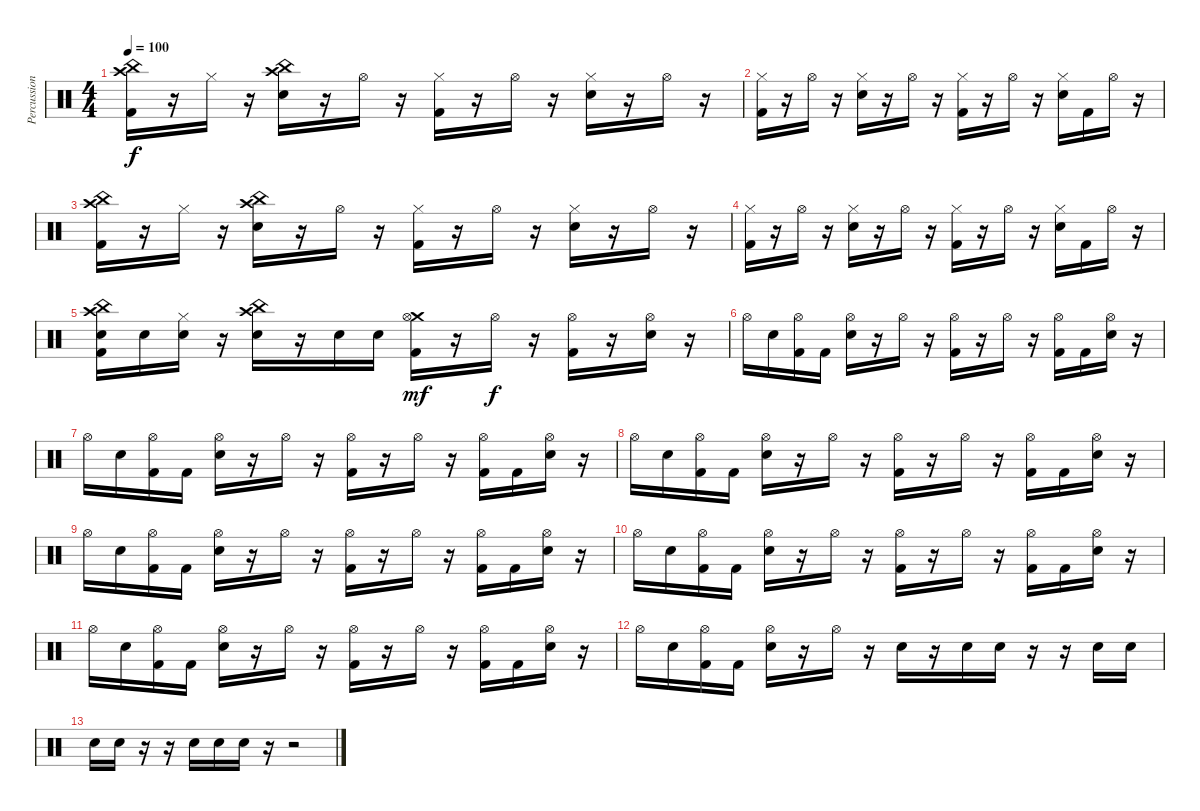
\track ("Percussion" "Percussion") {instrument percussion}
\staff {score}
\articulation defaults
\ts (4 4)
\tempo 100
\clef neutral
\ks c
("China (hit)" "Crash high (hit)" "Kick (hit) 2").16{dy f} r.16 "Hi-Hat (closed)".16 r.16 ("China (hit)" "Crash high (hit)" "Snare (hit) 2").16 r.16 "Hi-Hat (open)".16 r.16 ("Hi-Hat (closed)" "Kick (hit) 2").16 r.16 "Hi-Hat (open)".16 r.16 ("Hi-Hat (closed)" "Snare (hit) 2").16 r.16 "Hi-Hat (open)".16 r.16 |
("Hi-Hat (closed)" "Kick (hit) 2").16 r.16 "Hi-Hat (open)".16 r.16 ("Hi-Hat (closed)" "Snare (hit) 2").16 r.16 "Hi-Hat (open)".16 r.16 ("Hi-Hat (closed)" "Kick (hit) 2").16 r.16 "Hi-Hat (open)".16 r.16 ("Hi-Hat (closed)" "Snare (hit) 2").16 "Kick (hit) 2".16 "Hi-Hat (open)".16 r.16 |
("China (hit)" "Crash high (hit)" "Kick (hit) 2").16 r.16 "Hi-Hat (closed)".16 r.16 ("China (hit)" "Crash high (hit)" "Snare (hit) 2").16 r.16 "Hi-Hat (open)".16 r.16 ("Hi-Hat (closed)" "Kick (hit) 2").16 r.16 "Hi-Hat (open)".16 r.16 ("Hi-Hat (closed)" "Snare (hit) 2").16 r.16 "Hi-Hat (open)".16 r.16 |
("Hi-Hat (closed)" "Kick (hit) 2").16 r.16 "Hi-Hat (open)".16 r.16 ("Hi-Hat (closed)" "Snare (hit) 2").16 r.16 "Hi-Hat (open)".16 r.16 ("Hi-Hat (closed)" "Kick (hit) 2").16 r.16 "Hi-Hat (open)".16 r.16 ("Hi-Hat (closed)" "Snare (hit) 2").16 "Kick (hit) 2".16 "Hi-Hat (open)".16 r.16 |
("China (hit)" "Crash high (hit)" "Snare (hit) 2" "Kick (hit) 2").16 "Snare (hit) 2".16 ("Hi-Hat (closed)" "Snare (hit) 2").16 r.16 ("China (hit)" "Crash high (hit)" "Snare (hit) 2").16 r.16 "Snare (hit) 2".16 "Snare (hit) 2".16 ("Crash medium (hit)" "Hi-Hat (open)" "Kick (hit) 2").16{dy mf} r.16 "Hi-Hat (open)".16{dy f} r.16 ("Hi-Hat (open)" "Kick (hit) 2").16 r.16 ("Hi-Hat (open)" "Snare (hit) 2").16 r.16 |
"Hi-Hat (open)".16 "Snare (hit) 2".16 ("Hi-Hat (open)" "Kick (hit) 2").16 "Kick (hit) 2".16 ("Hi-Hat (open)" "Snare (hit) 2").16 r.16 "Hi-Hat (open)".16 r.16 ("Hi-Hat (open)" "Kick (hit) 2").16 r.16 "Hi-Hat (open)".16 r.16 ("Hi-Hat (open)" "Kick (hit) 2").16 "Kick (hit) 2".16 ("Hi-Hat (open)" "Snare (hit) 2").16 r.16 |
"Hi-Hat (open)".16 "Snare (hit) 2".16 ("Hi-Hat (open)" "Kick (hit) 2").16 "Kick (hit) 2".16 ("Hi-Hat (open)" "Snare (hit) 2").16 r.16 "Hi-Hat (open)".16 r.16 ("Hi-Hat (open)" "Kick (hit) 2").16 r.16 "Hi-Hat (open)".16 r.16 ("Hi-Hat (open)" "Kick (hit) 2").16 "Kick (hit) 2".16 ("Hi-Hat (open)" "Snare (hit) 2").16 r.16 |
"Hi-Hat (open)".16 "Snare (hit) 2".16 ("Hi-Hat (open)" "Kick (hit) 2").16 "Kick (hit) 2".16 ("Hi-Hat (open)" "Snare (hit) 2").16 r.16 "Hi-Hat (open)".16 r.16 ("Hi-Hat (open)" "Kick (hit) 2").16 r.16 "Hi-Hat (open)".16 r.16 ("Hi-Hat (open)" "Kick (hit) 2").16 "Kick (hit) 2".16 ("Hi-Hat (open)" "Snare (hit) 2").16 r.16 |
"Hi-Hat (open)".16 "Snare (hit) 2".16 ("Hi-Hat (open)" "Kick (hit) 2").16 "Kick (hit) 2".16 ("Hi-Hat (open)" "Snare (hit) 2").16 r.16 "Hi-Hat (open)".16 r.16 ("Hi-Hat (open)" "Kick (hit) 2").16 r.16 "Hi-Hat (open)".16 r.16 ("Hi-Hat (open)" "Kick (hit) 2").16 "Kick (hit) 2".16 ("Hi-Hat (open)" "Snare (hit) 2").16 r.16 |
"Hi-Hat (open)".16 "Snare (hit) 2".16 ("Hi-Hat (open)" "Kick (hit) 2").16 "Kick (hit) 2".16 ("Hi-Hat (open)" "Snare (hit) 2").16 r.16 "Hi-Hat (open)".16 r.16 ("Hi-Hat (open)" "Kick (hit) 2").16 r.16 "Hi-Hat (open)".16 r.16 ("Hi-Hat (open)" "Kick (hit) 2").16 "Kick (hit) 2".16 ("Hi-Hat (open)" "Snare (hit) 2").16 r.16 |
"Hi-Hat (open)".16 "Snare (hit) 2".16 ("Hi-Hat (open)" "Kick (hit) 2").16 "Kick (hit) 2".16 ("Hi-Hat (open)" "Snare (hit) 2").16 r.16 "Hi-Hat (open)".16 r.16 ("Hi-Hat (open)" "Kick (hit) 2").16 r.16 "Hi-Hat (open)".16 r.16 ("Hi-Hat (open)" "Kick (hit) 2").16 "Kick (hit) 2".16 ("Hi-Hat (open)" "Snare (hit) 2").16 r.16 |
"Hi-Hat (open)".16 "Snare (hit) 2".16 ("Hi-Hat (open)" "Kick (hit) 2").16 "Kick (hit) 2".16 ("Hi-Hat (open)" "Snare (hit) 2").16 r.16 "Hi-Hat (open)".16 r.16 "Snare (hit) 2".16 r.16 "Snare (hit) 2".16 "Snare (hit) 2".16 r.16 r.16 "Snare (hit) 2".16 "Snare (hit) 2".16 |
"Snare (hit) 2".16 "Snare (hit) 2".16 r.16 r.16 "Snare (hit) 2".16 "Snare (hit) 2".16 "Snare (hit) 2".16 r.16 r.2
